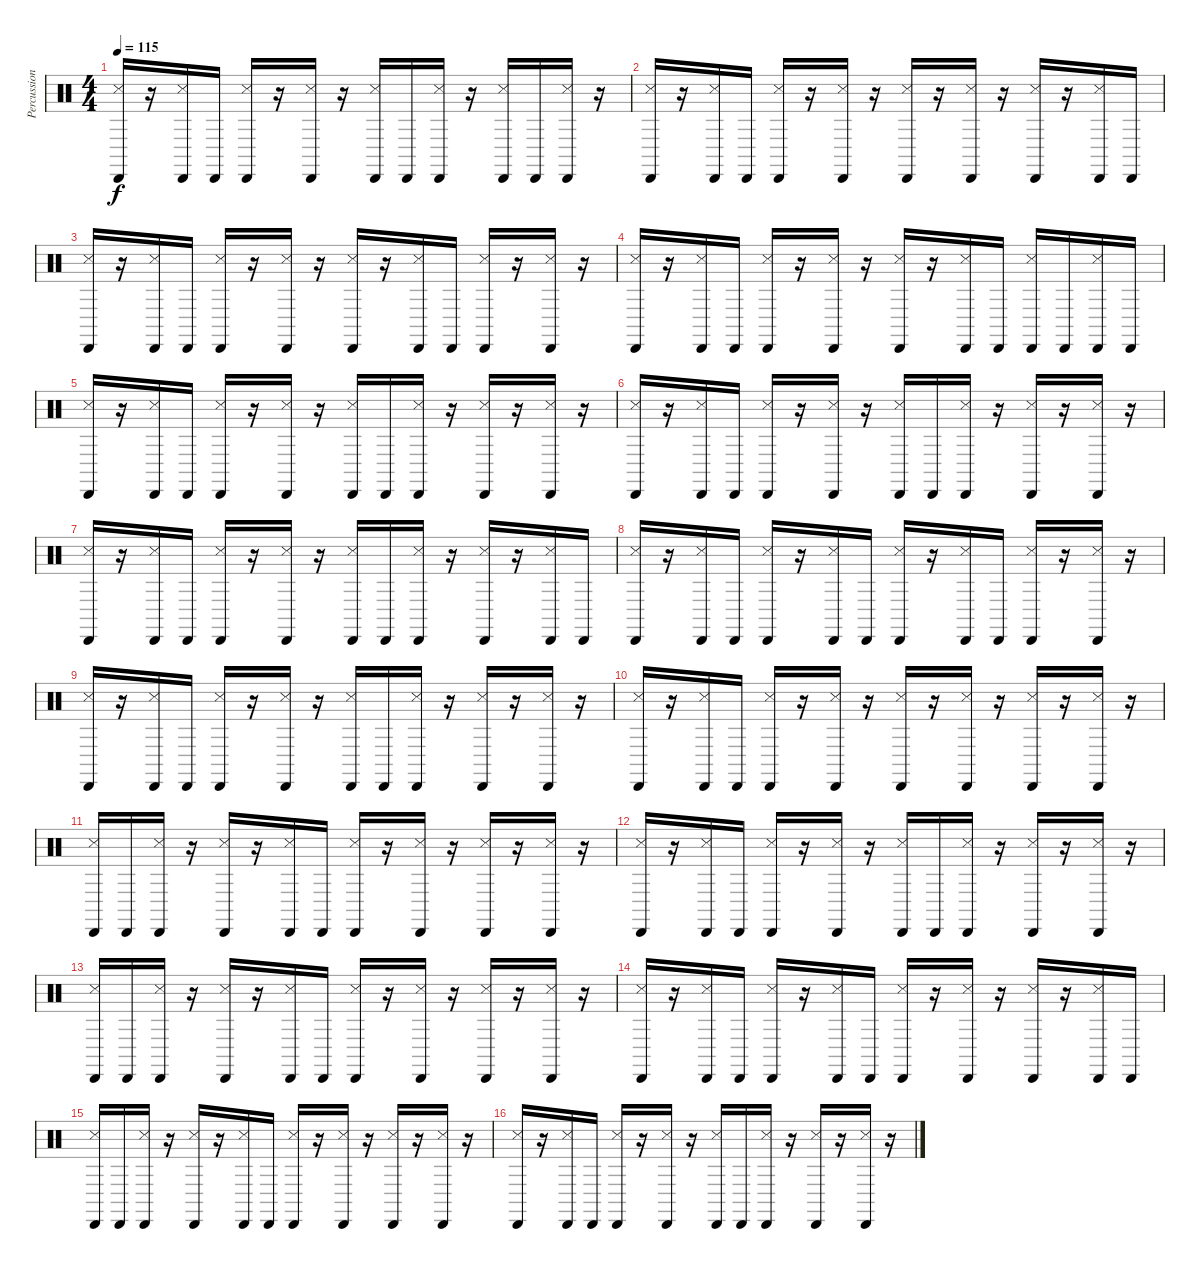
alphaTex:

\track ("Percussion" "Percussion") {instrument percussion}
\staff {score}
\articulation defaults
\ts (4 4)
\tempo 115
\clef neutral
\ks c
("Cabasa (hit)" "Snare (side stick) 3").16{dy f} r.16 ("Cabasa (hit)" "Snare (side stick) 3").16 "Cabasa (hit)".16 ("Cabasa (hit)" "Snare (side stick) 3").16 r.16 ("Cabasa (hit)" "Snare (side stick) 3").16 r.16 ("Cabasa (hit)" "Snare (side stick) 3").16 "Cabasa (hit)".16 ("Cabasa (hit)" "Snare (side stick) 3").16 r.16 ("Cabasa (hit)" "Snare (side stick) 3").16 "Cabasa (hit)".16 ("Cabasa (hit)" "Snare (side stick) 3").16 r.16 |
("Cabasa (hit)" "Snare (side stick) 3").16 r.16 ("Cabasa (hit)" "Snare (side stick) 3").16 "Cabasa (hit)".16 ("Cabasa (hit)" "Snare (side stick) 3").16 r.16 ("Cabasa (hit)" "Snare (side stick) 3").16 r.16 ("Cabasa (hit)" "Snare (side stick) 3").16 r.16 ("Cabasa (hit)" "Snare (side stick) 3").16 r.16 ("Cabasa (hit)" "Snare (side stick) 3").16 r.16 ("Cabasa (hit)" "Snare (side stick) 3").16 "Cabasa (hit)".16 |
("Cabasa (hit)" "Snare (side stick) 3").16 r.16 ("Cabasa (hit)" "Snare (side stick) 3").16 "Cabasa (hit)".16 ("Cabasa (hit)" "Snare (side stick) 3").16 r.16 ("Cabasa (hit)" "Snare (side stick) 3").16 r.16 ("Cabasa (hit)" "Snare (side stick) 3").16 r.16 ("Cabasa (hit)" "Snare (side stick) 3").16 "Cabasa (hit)".16 ("Cabasa (hit)" "Snare (side stick) 3").16 r.16 ("Cabasa (hit)" "Snare (side stick) 3").16 r.16 |
("Cabasa (hit)" "Snare (side stick) 3").16 r.16 ("Cabasa (hit)" "Snare (side stick) 3").16 "Cabasa (hit)".16 ("Cabasa (hit)" "Snare (side stick) 3").16 r.16 ("Cabasa (hit)" "Snare (side stick) 3").16 r.16 ("Cabasa (hit)" "Snare (side stick) 3").16 r.16 ("Cabasa (hit)" "Snare (side stick) 3").16 "Cabasa (hit)".16 ("Cabasa (hit)" "Snare (side stick) 3").16 "Cabasa (hit)".16 ("Cabasa (hit)" "Snare (side stick) 3").16 "Cabasa (hit)".16 |
("Cabasa (hit)" "Snare (side stick) 3").16 r.16 ("Cabasa (hit)" "Snare (side stick) 3").16 "Cabasa (hit)".16 ("Cabasa (hit)" "Snare (side stick) 3").16 r.16 ("Cabasa (hit)" "Snare (side stick) 3").16 r.16 ("Cabasa (hit)" "Snare (side stick) 3").16 "Cabasa (hit)".16 ("Cabasa (hit)" "Snare (side stick) 3").16 r.16 ("Cabasa (hit)" "Snare (side stick) 3").16 r.16 ("Cabasa (hit)" "Snare (side stick) 3").16 r.16 |
("Cabasa (hit)" "Snare (side stick) 3").16 r.16 ("Cabasa (hit)" "Snare (side stick) 3").16 "Cabasa (hit)".16 ("Cabasa (hit)" "Snare (side stick) 3").16 r.16 ("Cabasa (hit)" "Snare (side stick) 3").16 r.16 ("Cabasa (hit)" "Snare (side stick) 3").16 "Cabasa (hit)".16 ("Cabasa (hit)" "Snare (side stick) 3").16 r.16 ("Cabasa (hit)" "Snare (side stick) 3").16 r.16 ("Cabasa (hit)" "Snare (side stick) 3").16 r.16 |
("Cabasa (hit)" "Snare (side stick) 3").16 r.16 ("Cabasa (hit)" "Snare (side stick) 3").16 "Cabasa (hit)".16 ("Cabasa (hit)" "Snare (side stick) 3").16 r.16 ("Cabasa (hit)" "Snare (side stick) 3").16 r.16 ("Cabasa (hit)" "Snare (side stick) 3").16 "Cabasa (hit)".16 ("Cabasa (hit)" "Snare (side stick) 3").16 r.16 ("Cabasa (hit)" "Snare (side stick) 3").16 r.16 ("Cabasa (hit)" "Snare (side stick) 3").16 "Cabasa (hit)".16 |
("Cabasa (hit)" "Snare (side stick) 3").16 r.16 ("Cabasa (hit)" "Snare (side stick) 3").16 "Cabasa (hit)".16 ("Cabasa (hit)" "Snare (side stick) 3").16 r.16 ("Cabasa (hit)" "Snare (side stick) 3").16 "Cabasa (hit)".16 ("Cabasa (hit)" "Snare (side stick) 3").16 r.16 ("Cabasa (hit)" "Snare (side stick) 3").16 "Cabasa (hit)".16 ("Cabasa (hit)" "Snare (side stick) 3").16 r.16 ("Cabasa (hit)" "Snare (side stick) 3").16 r.16 |
("Cabasa (hit)" "Snare (side stick) 3").16 r.16 ("Cabasa (hit)" "Snare (side stick) 3").16 "Cabasa (hit)".16 ("Cabasa (hit)" "Snare (side stick) 3").16 r.16 ("Cabasa (hit)" "Snare (side stick) 3").16 r.16 ("Cabasa (hit)" "Snare (side stick) 3").16 "Cabasa (hit)".16 ("Cabasa (hit)" "Snare (side stick) 3").16 r.16 ("Cabasa (hit)" "Snare (side stick) 3").16 r.16 ("Cabasa (hit)" "Snare (side stick) 3").16 r.16 |
("Cabasa (hit)" "Snare (side stick) 3").16 r.16 ("Cabasa (hit)" "Snare (side stick) 3").16 "Cabasa (hit)".16 ("Cabasa (hit)" "Snare (side stick) 3").16 r.16 ("Cabasa (hit)" "Snare (side stick) 3").16 r.16 ("Cabasa (hit)" "Snare (side stick) 3").16 r.16 ("Cabasa (hit)" "Snare (side stick) 3").16 r.16 ("Cabasa (hit)" "Snare (side stick) 3").16 r.16 ("Cabasa (hit)" "Snare (side stick) 3").16 r.16 |
("Cabasa (hit)" "Snare (side stick) 3").16 "Cabasa (hit)".16 ("Cabasa (hit)" "Snare (side stick) 3").16 r.16 ("Cabasa (hit)" "Snare (side stick) 3").16 r.16 ("Cabasa (hit)" "Snare (side stick) 3").16 "Cabasa (hit)".16 ("Cabasa (hit)" "Snare (side stick) 3").16 r.16 ("Cabasa (hit)" "Snare (side stick) 3").16 r.16 ("Cabasa (hit)" "Snare (side stick) 3").16 r.16 ("Cabasa (hit)" "Snare (side stick) 3").16 r.16 |
("Cabasa (hit)" "Snare (side stick) 3").16 r.16 ("Cabasa (hit)" "Snare (side stick) 3").16 "Cabasa (hit)".16 ("Cabasa (hit)" "Snare (side stick) 3").16 r.16 ("Cabasa (hit)" "Snare (side stick) 3").16 r.16 ("Cabasa (hit)" "Snare (side stick) 3").16 "Cabasa (hit)".16 ("Cabasa (hit)" "Snare (side stick) 3").16 r.16 ("Cabasa (hit)" "Snare (side stick) 3").16 r.16 ("Cabasa (hit)" "Snare (side stick) 3").16 r.16 |
("Cabasa (hit)" "Snare (side stick) 3").16 "Cabasa (hit)".16 ("Cabasa (hit)" "Snare (side stick) 3").16 r.16 ("Cabasa (hit)" "Snare (side stick) 3").16 r.16 ("Cabasa (hit)" "Snare (side stick) 3").16 "Cabasa (hit)".16 ("Cabasa (hit)" "Snare (side stick) 3").16 r.16 ("Cabasa (hit)" "Snare (side stick) 3").16 r.16 ("Cabasa (hit)" "Snare (side stick) 3").16 r.16 ("Cabasa (hit)" "Snare (side stick) 3").16 r.16 |
("Cabasa (hit)" "Snare (side stick) 3").16 r.16 ("Cabasa (hit)" "Snare (side stick) 3").16 "Cabasa (hit)".16 ("Cabasa (hit)" "Snare (side stick) 3").16 r.16 ("Cabasa (hit)" "Snare (side stick) 3").16 "Cabasa (hit)".16 ("Cabasa (hit)" "Snare (side stick) 3").16 r.16 ("Cabasa (hit)" "Snare (side stick) 3").16 r.16 ("Cabasa (hit)" "Snare (side stick) 3").16 r.16 ("Cabasa (hit)" "Snare (side stick) 3").16 "Cabasa (hit)".16 |
("Cabasa (hit)" "Snare (side stick) 3").16 "Cabasa (hit)".16 ("Cabasa (hit)" "Snare (side stick) 3").16 r.16 ("Cabasa (hit)" "Snare (side stick) 3").16 r.16 ("Cabasa (hit)" "Snare (side stick) 3").16 "Cabasa (hit)".16 ("Cabasa (hit)" "Snare (side stick) 3").16 r.16 ("Cabasa (hit)" "Snare (side stick) 3").16 r.16 ("Cabasa (hit)" "Snare (side stick) 3").16 r.16 ("Cabasa (hit)" "Snare (side stick) 3").16 r.16 |
("Cabasa (hit)" "Snare (side stick) 3").16 r.16 ("Cabasa (hit)" "Snare (side stick) 3").16 "Cabasa (hit)".16 ("Cabasa (hit)" "Snare (side stick) 3").16 r.16 ("Cabasa (hit)" "Snare (side stick) 3").16 r.16 ("Cabasa (hit)" "Snare (side stick) 3").16 "Cabasa (hit)".16 ("Cabasa (hit)" "Snare (side stick) 3").16 r.16 ("Cabasa (hit)" "Snare (side stick) 3").16 r.16 ("Cabasa (hit)" "Snare (side stick) 3").16 r.16
